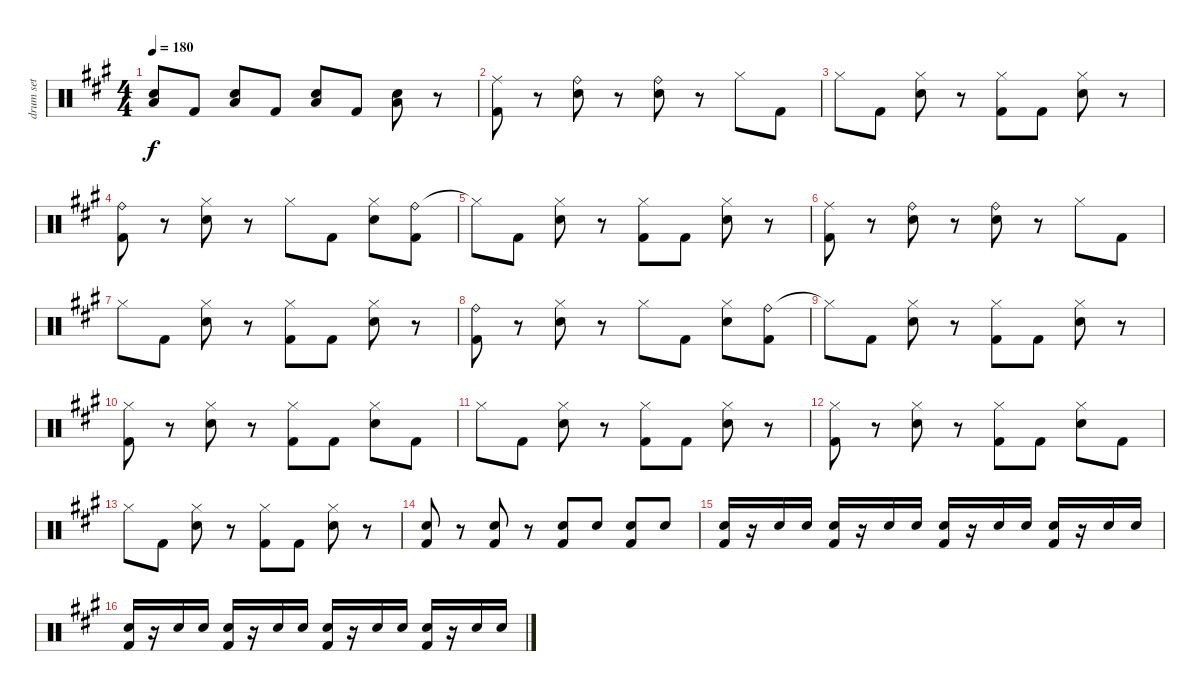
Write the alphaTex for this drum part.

\track ("drum set" "drum set") {instrument percussion}
\staff {score}
\articulation defaults
\ts (4 4)
\tempo 180
\clef neutral
\ks a
("Snare (hit) 2" "Low Tom (hit)").8{dy f} "Kick (hit) 2".8 ("Snare (hit) 2" "Low Tom (hit)").8 "Kick (hit) 2".8 ("Snare (hit) 2" "Low Tom (hit)").8 "Kick (hit) 2".8 ("Snare (hit) 2" "Low Tom (hit)").8 r.8 |
("Ride (middle)" "Kick (hit) 2").8 r.8 ("Ride (bell)" "Snare (hit) 2").8 r.8 ("Ride (bell)" "Snare (hit) 2").8 r.8 "Hi-Hat (closed)".8 "Kick (hit) 2".8 |
"Hi-Hat (closed)".8 "Kick (hit) 2".8 ("Hi-Hat (closed)" "Snare (hit) 2").8 r.8 ("Hi-Hat (closed)" "Kick (hit) 2").8 "Kick (hit) 2".8 ("Hi-Hat (closed)" "Snare (hit) 2").8 r.8 |
("Ride (bell)" "Kick (hit) 2").8 r.8 ("Hi-Hat (closed)" "Snare (hit) 2").8 r.8 "Hi-Hat (closed)".8 "Kick (hit) 2".8 ("Hi-Hat (closed)" "Snare (hit) 2").8 ("Ride (bell)" "Kick (hit) 2").8 |
"Hi-Hat (closed)"{t}.8 "Kick (hit) 2".8 ("Hi-Hat (closed)" "Snare (hit) 2").8 r.8 ("Hi-Hat (closed)" "Kick (hit) 2").8 "Kick (hit) 2".8 ("Hi-Hat (closed)" "Snare (hit) 2").8 r.8 |
("Ride (middle)" "Kick (hit) 2").8 r.8 ("Ride (bell)" "Snare (hit) 2").8 r.8 ("Ride (bell)" "Snare (hit) 2").8 r.8 "Hi-Hat (closed)".8 "Kick (hit) 2".8 |
"Hi-Hat (closed)".8 "Kick (hit) 2".8 ("Hi-Hat (closed)" "Snare (hit) 2").8 r.8 ("Hi-Hat (closed)" "Kick (hit) 2").8 "Kick (hit) 2".8 ("Hi-Hat (closed)" "Snare (hit) 2").8 r.8 |
("Ride (bell)" "Kick (hit) 2").8 r.8 ("Hi-Hat (closed)" "Snare (hit) 2").8 r.8 "Hi-Hat (closed)".8 "Kick (hit) 2".8 ("Hi-Hat (closed)" "Snare (hit) 2").8 ("Ride (bell)" "Kick (hit) 2").8 |
"Hi-Hat (closed)"{t}.8 "Kick (hit) 2".8 ("Hi-Hat (closed)" "Snare (hit) 2").8 r.8 ("Hi-Hat (closed)" "Kick (hit) 2").8 "Kick (hit) 2".8 ("Hi-Hat (closed)" "Snare (hit) 2").8 r.8 |
("Hi-Hat (closed)" "Kick (hit) 2").8 r.8 ("Hi-Hat (closed)" "Snare (hit) 2").8 r.8 ("Hi-Hat (closed)" "Kick (hit) 2").8 "Kick (hit) 2".8 ("Hi-Hat (closed)" "Snare (hit) 2").8 "Kick (hit) 2".8 |
"Hi-Hat (closed)".8 "Kick (hit) 2".8 ("Hi-Hat (closed)" "Snare (hit) 2").8 r.8 ("Hi-Hat (closed)" "Kick (hit) 2").8 "Kick (hit) 2".8 ("Hi-Hat (closed)" "Snare (hit) 2").8 r.8 |
("Hi-Hat (closed)" "Kick (hit) 2").8 r.8 ("Hi-Hat (closed)" "Snare (hit) 2").8 r.8 ("Hi-Hat (closed)" "Kick (hit) 2").8 "Kick (hit) 2".8 ("Hi-Hat (closed)" "Snare (hit) 2").8 "Kick (hit) 2".8 |
"Hi-Hat (closed)".8 "Kick (hit) 2".8 ("Hi-Hat (closed)" "Snare (hit) 2").8 r.8 ("Hi-Hat (closed)" "Kick (hit) 2").8 "Kick (hit) 2".8 ("Hi-Hat (closed)" "Snare (hit) 2").8 r.8 |
("Snare (hit) 2" "Kick (hit) 2").8 r.8 ("Snare (hit) 2" "Kick (hit) 2").8 r.8 ("Snare (hit) 2" "Kick (hit) 2").8 "Snare (hit) 2".8 ("Snare (hit) 2" "Kick (hit) 2").8 "Snare (hit) 2".8 |
("Snare (hit) 2" "Kick (hit) 2").16 r.16 "Snare (hit) 2".16 "Snare (hit) 2".16 ("Snare (hit) 2" "Kick (hit) 2").16 r.16 "Snare (hit) 2".16 "Snare (hit) 2".16 ("Snare (hit) 2" "Kick (hit) 2").16 r.16 "Snare (hit) 2".16 "Snare (hit) 2".16 ("Snare (hit) 2" "Kick (hit) 2").16 r.16 "Snare (hit) 2".16 "Snare (hit) 2".16 |
("Snare (hit) 2" "Kick (hit) 2").16 r.16 "Snare (hit) 2".16 "Snare (hit) 2".16 ("Snare (hit) 2" "Kick (hit) 2").16 r.16 "Snare (hit) 2".16 "Snare (hit) 2".16 ("Snare (hit) 2" "Kick (hit) 2").16 r.16 "Snare (hit) 2".16 "Snare (hit) 2".16 ("Snare (hit) 2" "Kick (hit) 2").16 r.16 "Snare (hit) 2".16 "Snare (hit) 2".16
